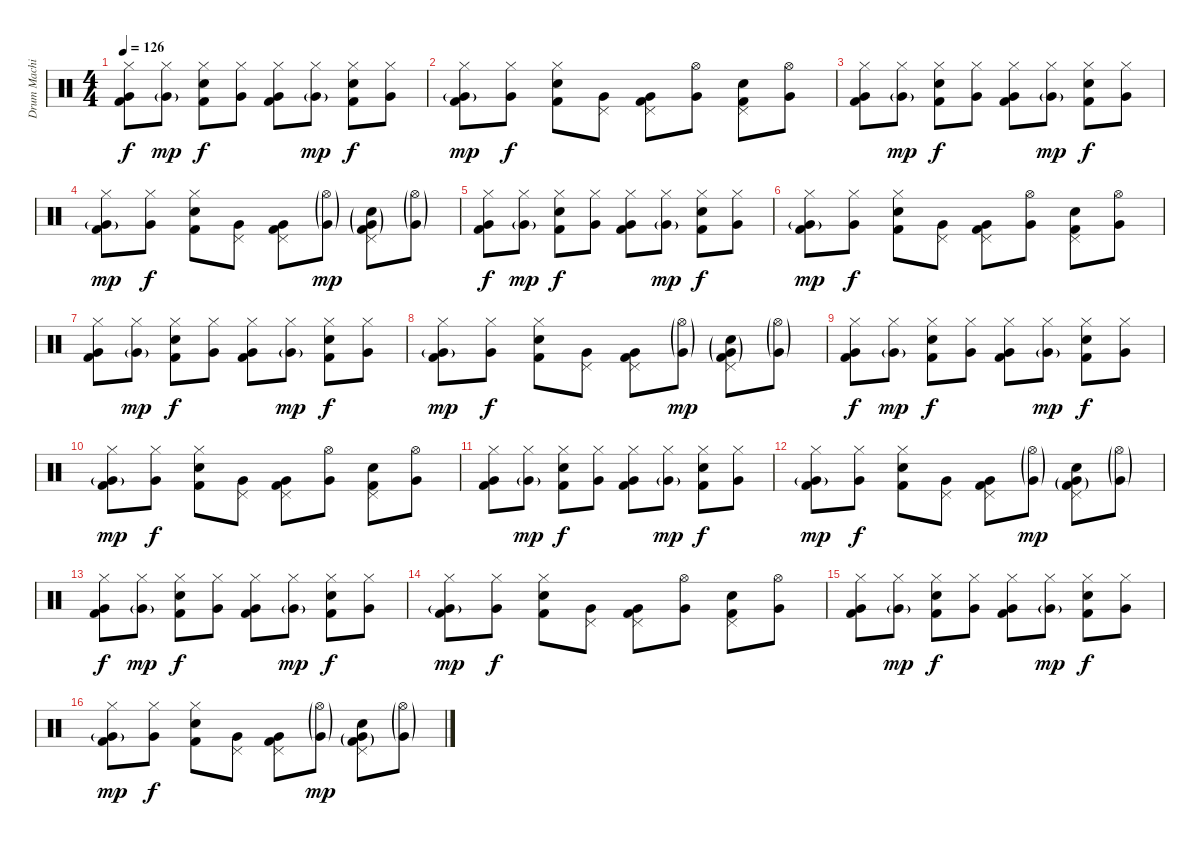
\track ("Drum Machine 1" "Drum Machi") {instrument percussion}
\staff {score}
\articulation defaults
\ts (4 4)
\tempo 126
\clef neutral
\ks c
("Hi-Hat (closed)" "Very Low Tom (hit)" "Kick (hit) 2").8{dy f} ("Hi-Hat (closed)" "Very Low Tom (hit)"{g}).8{dy mp} ("Hi-Hat (closed)" "Electric Snare (hit)" "Kick (hit) 2").8{dy f} ("Hi-Hat (closed)" "Very Low Tom (hit)").8 ("Hi-Hat (closed)" "Very Low Tom (hit)" "Kick (hit) 2").8 ("Hi-Hat (closed)" "Very Low Tom (hit)"{g}).8{dy mp} ("Hi-Hat (closed)" "Electric Snare (hit)" "Kick (hit) 2").8{dy f} ("Hi-Hat (closed)" "Very Low Tom (hit)").8 |
("Hi-Hat (closed)" "Very Low Tom (hit)"{g} "Kick (hit) 2").8{dy mp} ("Hi-Hat (closed)" "Very Low Tom (hit)").8{dy f} ("Hi-Hat (closed)" "Electric Snare (hit)" "Kick (hit) 2").8 ("Pedal Hi-Hat (hit)" "Very Low Tom (hit)").8 ("Pedal Hi-Hat (hit)" "Very Low Tom (hit)" "Kick (hit) 2").8 ("Hi-Hat (open)" "Very Low Tom (hit)").8 ("Pedal Hi-Hat (hit)" "Electric Snare (hit)" "Kick (hit) 2").8 ("Hi-Hat (open)" "Very Low Tom (hit)").8 |
("Hi-Hat (closed)" "Very Low Tom (hit)" "Kick (hit) 2").8 ("Hi-Hat (closed)" "Very Low Tom (hit)"{g}).8{dy mp} ("Hi-Hat (closed)" "Electric Snare (hit)" "Kick (hit) 2").8{dy f} ("Hi-Hat (closed)" "Very Low Tom (hit)").8 ("Hi-Hat (closed)" "Very Low Tom (hit)" "Kick (hit) 2").8 ("Hi-Hat (closed)" "Very Low Tom (hit)"{g}).8{dy mp} ("Hi-Hat (closed)" "Electric Snare (hit)" "Kick (hit) 2").8{dy f} ("Hi-Hat (closed)" "Very Low Tom (hit)").8 |
("Hi-Hat (closed)" "Very Low Tom (hit)"{g} "Kick (hit) 2").8{dy mp} ("Hi-Hat (closed)" "Very Low Tom (hit)").8{dy f} ("Hi-Hat (closed)" "Electric Snare (hit)" "Kick (hit) 2").8 ("Pedal Hi-Hat (hit)" "Very Low Tom (hit)").8 ("Pedal Hi-Hat (hit)" "Very Low Tom (hit)" "Kick (hit) 2").8 ("Hi-Hat (open)"{g} "Very Low Tom (hit)"{g}).8{dy mp} ("Pedal Hi-Hat (hit)" "Electric Snare (hit)"{g} "Very Low Tom (hit)"{g} "Kick (hit) 2"{g}).8 ("Hi-Hat (open)"{g} "Very Low Tom (hit)"{g}).8 |
("Hi-Hat (closed)" "Very Low Tom (hit)" "Kick (hit) 2").8{dy f} ("Hi-Hat (closed)" "Very Low Tom (hit)"{g}).8{dy mp} ("Hi-Hat (closed)" "Electric Snare (hit)" "Kick (hit) 2").8{dy f} ("Hi-Hat (closed)" "Very Low Tom (hit)").8 ("Hi-Hat (closed)" "Very Low Tom (hit)" "Kick (hit) 2").8 ("Hi-Hat (closed)" "Very Low Tom (hit)"{g}).8{dy mp} ("Hi-Hat (closed)" "Electric Snare (hit)" "Kick (hit) 2").8{dy f} ("Hi-Hat (closed)" "Very Low Tom (hit)").8 |
("Hi-Hat (closed)" "Very Low Tom (hit)"{g} "Kick (hit) 2").8{dy mp} ("Hi-Hat (closed)" "Very Low Tom (hit)").8{dy f} ("Hi-Hat (closed)" "Electric Snare (hit)" "Kick (hit) 2").8 ("Pedal Hi-Hat (hit)" "Very Low Tom (hit)").8 ("Pedal Hi-Hat (hit)" "Very Low Tom (hit)" "Kick (hit) 2").8 ("Hi-Hat (open)" "Very Low Tom (hit)").8 ("Pedal Hi-Hat (hit)" "Electric Snare (hit)" "Kick (hit) 2").8 ("Hi-Hat (open)" "Very Low Tom (hit)").8 |
("Hi-Hat (closed)" "Very Low Tom (hit)" "Kick (hit) 2").8 ("Hi-Hat (closed)" "Very Low Tom (hit)"{g}).8{dy mp} ("Hi-Hat (closed)" "Electric Snare (hit)" "Kick (hit) 2").8{dy f} ("Hi-Hat (closed)" "Very Low Tom (hit)").8 ("Hi-Hat (closed)" "Very Low Tom (hit)" "Kick (hit) 2").8 ("Hi-Hat (closed)" "Very Low Tom (hit)"{g}).8{dy mp} ("Hi-Hat (closed)" "Electric Snare (hit)" "Kick (hit) 2").8{dy f} ("Hi-Hat (closed)" "Very Low Tom (hit)").8 |
("Hi-Hat (closed)" "Very Low Tom (hit)"{g} "Kick (hit) 2").8{dy mp} ("Hi-Hat (closed)" "Very Low Tom (hit)").8{dy f} ("Hi-Hat (closed)" "Electric Snare (hit)" "Kick (hit) 2").8 ("Pedal Hi-Hat (hit)" "Very Low Tom (hit)").8 ("Pedal Hi-Hat (hit)" "Very Low Tom (hit)" "Kick (hit) 2").8 ("Hi-Hat (open)"{g} "Very Low Tom (hit)"{g}).8{dy mp} ("Pedal Hi-Hat (hit)" "Electric Snare (hit)"{g} "Very Low Tom (hit)"{g} "Kick (hit) 2"{g}).8 ("Hi-Hat (open)"{g} "Very Low Tom (hit)"{g}).8 |
("Hi-Hat (closed)" "Very Low Tom (hit)" "Kick (hit) 2").8{dy f} ("Hi-Hat (closed)" "Very Low Tom (hit)"{g}).8{dy mp} ("Hi-Hat (closed)" "Electric Snare (hit)" "Kick (hit) 2").8{dy f} ("Hi-Hat (closed)" "Very Low Tom (hit)").8 ("Hi-Hat (closed)" "Very Low Tom (hit)" "Kick (hit) 2").8 ("Hi-Hat (closed)" "Very Low Tom (hit)"{g}).8{dy mp} ("Hi-Hat (closed)" "Electric Snare (hit)" "Kick (hit) 2").8{dy f} ("Hi-Hat (closed)" "Very Low Tom (hit)").8 |
("Hi-Hat (closed)" "Very Low Tom (hit)"{g} "Kick (hit) 2").8{dy mp} ("Hi-Hat (closed)" "Very Low Tom (hit)").8{dy f} ("Hi-Hat (closed)" "Electric Snare (hit)" "Kick (hit) 2").8 ("Pedal Hi-Hat (hit)" "Very Low Tom (hit)").8 ("Pedal Hi-Hat (hit)" "Very Low Tom (hit)" "Kick (hit) 2").8 ("Hi-Hat (open)" "Very Low Tom (hit)").8 ("Pedal Hi-Hat (hit)" "Electric Snare (hit)" "Kick (hit) 2").8 ("Hi-Hat (open)" "Very Low Tom (hit)").8 |
("Hi-Hat (closed)" "Very Low Tom (hit)" "Kick (hit) 2").8 ("Hi-Hat (closed)" "Very Low Tom (hit)"{g}).8{dy mp} ("Hi-Hat (closed)" "Electric Snare (hit)" "Kick (hit) 2").8{dy f} ("Hi-Hat (closed)" "Very Low Tom (hit)").8 ("Hi-Hat (closed)" "Very Low Tom (hit)" "Kick (hit) 2").8 ("Hi-Hat (closed)" "Very Low Tom (hit)"{g}).8{dy mp} ("Hi-Hat (closed)" "Electric Snare (hit)" "Kick (hit) 2").8{dy f} ("Hi-Hat (closed)" "Very Low Tom (hit)").8 |
("Hi-Hat (closed)" "Very Low Tom (hit)"{g} "Kick (hit) 2").8{dy mp} ("Hi-Hat (closed)" "Very Low Tom (hit)").8{dy f} ("Hi-Hat (closed)" "Electric Snare (hit)" "Kick (hit) 2").8 ("Pedal Hi-Hat (hit)" "Very Low Tom (hit)").8 ("Pedal Hi-Hat (hit)" "Very Low Tom (hit)" "Kick (hit) 2").8 ("Hi-Hat (open)"{g} "Very Low Tom (hit)"{g}).8{dy mp} ("Pedal Hi-Hat (hit)" "Electric Snare (hit)" "Very Low Tom (hit)"{g} "Kick (hit) 2"{g}).8 ("Hi-Hat (open)"{g} "Very Low Tom (hit)"{g}).8 |
("Hi-Hat (closed)" "Very Low Tom (hit)" "Kick (hit) 2").8{dy f} ("Hi-Hat (closed)" "Very Low Tom (hit)"{g}).8{dy mp} ("Hi-Hat (closed)" "Electric Snare (hit)" "Kick (hit) 2").8{dy f} ("Hi-Hat (closed)" "Very Low Tom (hit)").8 ("Hi-Hat (closed)" "Very Low Tom (hit)" "Kick (hit) 2").8 ("Hi-Hat (closed)" "Very Low Tom (hit)"{g}).8{dy mp} ("Hi-Hat (closed)" "Electric Snare (hit)" "Kick (hit) 2").8{dy f} ("Hi-Hat (closed)" "Very Low Tom (hit)").8 |
("Hi-Hat (closed)" "Very Low Tom (hit)"{g} "Kick (hit) 2").8{dy mp} ("Hi-Hat (closed)" "Very Low Tom (hit)").8{dy f} ("Hi-Hat (closed)" "Electric Snare (hit)" "Kick (hit) 2").8 ("Pedal Hi-Hat (hit)" "Very Low Tom (hit)").8 ("Pedal Hi-Hat (hit)" "Very Low Tom (hit)" "Kick (hit) 2").8 ("Hi-Hat (open)" "Very Low Tom (hit)").8 ("Pedal Hi-Hat (hit)" "Electric Snare (hit)" "Kick (hit) 2").8 ("Hi-Hat (open)" "Very Low Tom (hit)").8 |
("Hi-Hat (closed)" "Very Low Tom (hit)" "Kick (hit) 2").8 ("Hi-Hat (closed)" "Very Low Tom (hit)"{g}).8{dy mp} ("Hi-Hat (closed)" "Electric Snare (hit)" "Kick (hit) 2").8{dy f} ("Hi-Hat (closed)" "Very Low Tom (hit)").8 ("Hi-Hat (closed)" "Very Low Tom (hit)" "Kick (hit) 2").8 ("Hi-Hat (closed)" "Very Low Tom (hit)"{g}).8{dy mp} ("Hi-Hat (closed)" "Electric Snare (hit)" "Kick (hit) 2").8{dy f} ("Hi-Hat (closed)" "Very Low Tom (hit)").8 |
("Hi-Hat (closed)" "Very Low Tom (hit)"{g} "Kick (hit) 2").8{dy mp} ("Hi-Hat (closed)" "Very Low Tom (hit)").8{dy f} ("Hi-Hat (closed)" "Electric Snare (hit)" "Kick (hit) 2").8 ("Pedal Hi-Hat (hit)" "Very Low Tom (hit)").8 ("Pedal Hi-Hat (hit)" "Very Low Tom (hit)" "Kick (hit) 2").8 ("Hi-Hat (open)"{g} "Very Low Tom (hit)"{g}).8{dy mp} ("Pedal Hi-Hat (hit)" "Electric Snare (hit)" "Very Low Tom (hit)"{g} "Kick (hit) 2"{g}).8 ("Hi-Hat (open)"{g} "Very Low Tom (hit)"{g}).8
